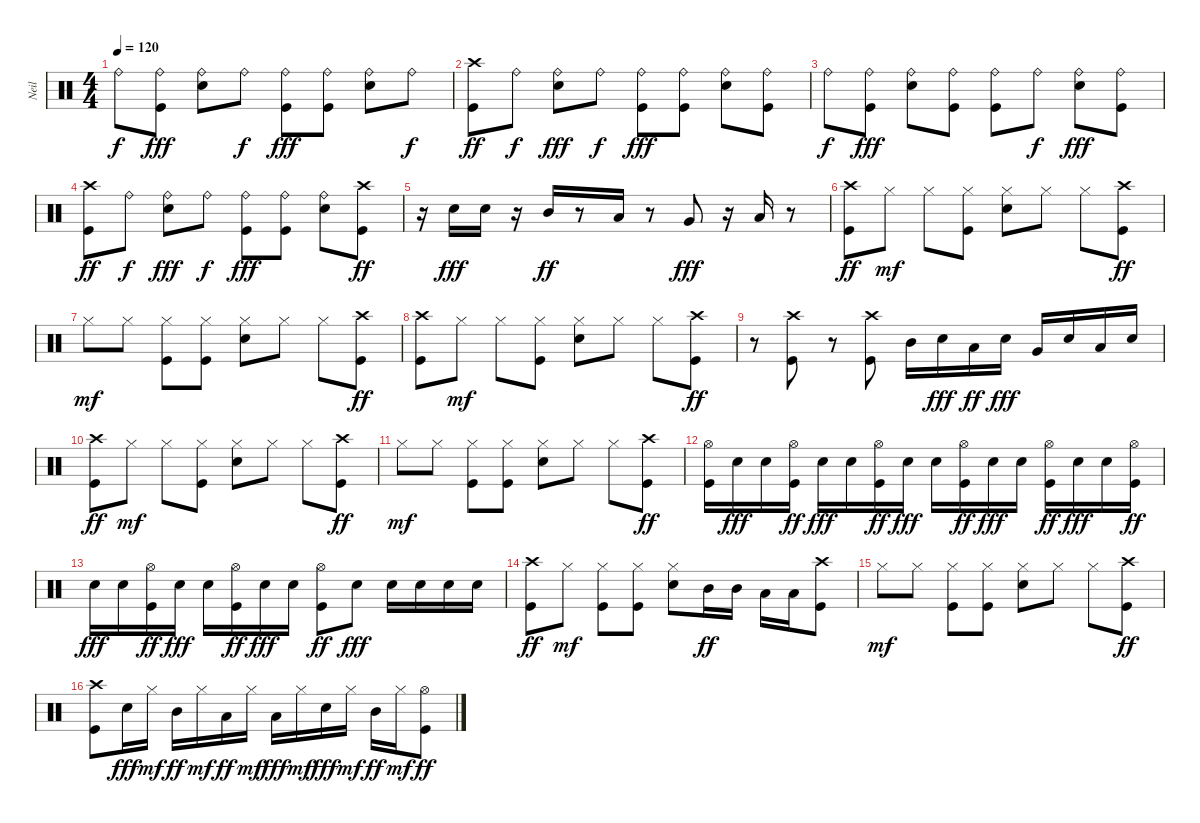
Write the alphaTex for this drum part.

\track ("Neil" "Neil") {instrument percussion}
\staff {score}
\articulation defaults
\ts (4 4)
\tempo 120
\clef neutral
\ks c "Ride (bell)".8{dy f}
("Kick (hit)" "Ride (bell)").8{dy fff} ("Snare (hit) 2" "Ride (bell)").8 "Ride (bell)".8{dy f} ("Kick (hit)" "Ride (bell)").8{dy fff} ("Kick (hit)" "Ride (bell)").8 ("Snare (hit) 2" "Ride (bell)").8 "Ride (bell)".8{dy f} |
("Kick (hit)" "Crash high (hit)").8{dy ff} "Ride (bell)".8{dy f} ("Snare (hit) 2" "Ride (bell)").8{dy fff} "Ride (bell)".8{dy f} ("Kick (hit)" "Ride (bell)").8{dy fff} ("Kick (hit)" "Ride (bell)").8 ("Snare (hit) 2" "Ride (bell)").8 ("Kick (hit)" "Ride (bell)").8 |
"Ride (bell)".8{dy f} ("Kick (hit)" "Ride (bell)").8{dy fff} ("Snare (hit) 2" "Ride (bell)").8 ("Kick (hit)" "Ride (bell)").8 ("Kick (hit)" "Ride (bell)").8 "Ride (bell)".8{dy f} ("Snare (hit) 2" "Ride (bell)").8{dy fff} ("Kick (hit)" "Ride (bell)").8 |
("Kick (hit)" "Crash high (hit)").8{dy ff} "Ride (bell)".8{dy f} ("Snare (hit) 2" "Ride (bell)").8{dy fff} "Ride (bell)".8{dy f} ("Kick (hit)" "Ride (bell)").8{dy fff} ("Kick (hit)" "Ride (bell)").8 ("Snare (hit) 2" "Ride (bell)").8 ("Kick (hit)" "Crash high (hit)").8{dy ff} |
r.16 "Snare (hit) 2".16{dy fff} "Snare (hit) 2".16 r.16 "Mid Tom (hit)".16{dy ff} r.8 "Low Tom (hit)".16 r.8 "Very Low Tom (hit)".8{dy fff} r.16 "Low Floor Tom (hit)".16 r.8 |
("Kick (hit)" "Crash high (hit)").8{dy ff} "Hi-Hat (closed)".8{dy mf} "Hi-Hat (closed)".8 ("Kick (hit)" "Hi-Hat (closed)").8 ("Snare (hit) 2" "Hi-Hat (closed)").8 "Hi-Hat (closed)".8 "Hi-Hat (closed)".8 ("Kick (hit)" "Crash high (hit)").8{dy ff} |
"Hi-Hat (closed)".8{dy mf} "Hi-Hat (closed)".8 ("Kick (hit)" "Hi-Hat (closed)").8 ("Kick (hit)" "Hi-Hat (closed)").8 ("Snare (hit) 2" "Hi-Hat (closed)").8 "Hi-Hat (closed)".8 "Hi-Hat (closed)".8 ("Kick (hit)" "Crash high (hit)").8{dy ff} |
("Kick (hit)" "Crash high (hit)").8 "Hi-Hat (closed)".8{dy mf} "Hi-Hat (closed)".8 ("Kick (hit)" "Hi-Hat (closed)").8 ("Snare (hit) 2" "Hi-Hat (closed)").8 "Hi-Hat (closed)".8 "Hi-Hat (closed)".8 ("Kick (hit)" "Crash high (hit)").8{dy ff} |
r.8 ("Kick (hit)" "Crash high (hit)").8 r.8 ("Kick (hit)" "Crash high (hit)").8 "Mid Tom (hit)".16 "Snare (hit) 2".16{dy fff} "Low Tom (hit)".16{dy ff} "Snare (hit) 2".16{dy fff} "Very Low Tom (hit)".16 "Snare (hit) 2".16 "Low Floor Tom (hit)".16 "Snare (hit) 2".16 |
("Kick (hit)" "Crash high (hit)").8{dy ff} "Hi-Hat (closed)".8{dy mf} "Hi-Hat (closed)".8 ("Kick (hit)" "Hi-Hat (closed)").8 ("Snare (hit) 2" "Hi-Hat (closed)").8 "Hi-Hat (closed)".8 "Hi-Hat (closed)".8 ("Kick (hit)" "Crash high (hit)").8{dy ff} |
"Hi-Hat (closed)".8{dy mf} "Hi-Hat (closed)".8 ("Kick (hit)" "Hi-Hat (closed)").8 ("Kick (hit)" "Hi-Hat (closed)").8 ("Snare (hit) 2" "Hi-Hat (closed)").8 "Hi-Hat (closed)".8 "Hi-Hat (closed)".8 ("Kick (hit)" "Crash high (hit)").8{dy ff} |
("Kick (hit)" "Hi-Hat (open)").16 "Snare (hit) 2".16{dy fff} "Snare (hit) 2".16 ("Kick (hit)" "Hi-Hat (open)").16{dy ff} "Snare (hit) 2".16{dy fff} "Snare (hit) 2".16 ("Kick (hit)" "Hi-Hat (open)").16{dy ff} "Snare (hit) 2".16{dy fff} "Snare (hit) 2".16 ("Kick (hit)" "Hi-Hat (open)").16{dy ff} "Snare (hit) 2".16{dy fff} "Snare (hit) 2".16 ("Kick (hit)" "Hi-Hat (open)").16{dy ff} "Snare (hit) 2".16{dy fff} "Snare (hit) 2".16 ("Kick (hit)" "Hi-Hat (open)").16{dy ff} |
"Snare (hit) 2".16{dy fff} "Snare (hit) 2".16 ("Kick (hit)" "Hi-Hat (open)").16{dy ff} "Snare (hit) 2".16{dy fff} "Snare (hit) 2".16 ("Kick (hit)" "Hi-Hat (open)").16{dy ff} "Snare (hit) 2".16{dy fff} "Snare (hit) 2".16 ("Kick (hit)" "Hi-Hat (open)").8{dy ff} "Snare (hit) 2".8{dy fff} "Snare (hit) 2".16 "Snare (hit) 2".16 "Snare (hit) 2".16 "Snare (hit) 2".16 |
("Kick (hit)" "Crash high (hit)").8{dy ff} "Hi-Hat (closed)".8{dy mf} ("Kick (hit)" "Hi-Hat (closed)").8 ("Kick (hit)" "Hi-Hat (closed)").8 ("Snare (hit) 2" "Hi-Hat (closed)").8 "Mid Tom (hit)".16{dy ff} "Mid Tom (hit)".16 "Low Tom (hit)".16 "Low Tom (hit)".16 ("Kick (hit)" "Crash high (hit)").8 |
"Hi-Hat (closed)".8{dy mf} "Hi-Hat (closed)".8 ("Kick (hit)" "Hi-Hat (closed)").8 ("Kick (hit)" "Hi-Hat (closed)").8 ("Snare (hit) 2" "Hi-Hat (closed)").8 "Hi-Hat (closed)".8 "Hi-Hat (closed)".8 ("Kick (hit)" "Crash high (hit)").8{dy ff} |
("Kick (hit)" "Crash high (hit)").8 "Snare (hit) 2".16{dy fff} "Hi-Hat (closed)".16{dy mf} "Mid Tom (hit)".16{dy ff} "Hi-Hat (closed)".16{dy mf} "Low Tom (hit)".16{dy ff} "Hi-Hat (closed)".16{dy mf} "Low Floor Tom (hit)".16{dy fff} "Hi-Hat (closed)".16{dy mf} "Snare (hit) 2".16{dy fff} "Hi-Hat (closed)".16{dy mf} "Mid Tom (hit)".16{dy ff} "Hi-Hat (closed)".16{dy mf} ("Kick (hit)" "Hi-Hat (open)").8{dy ff}
